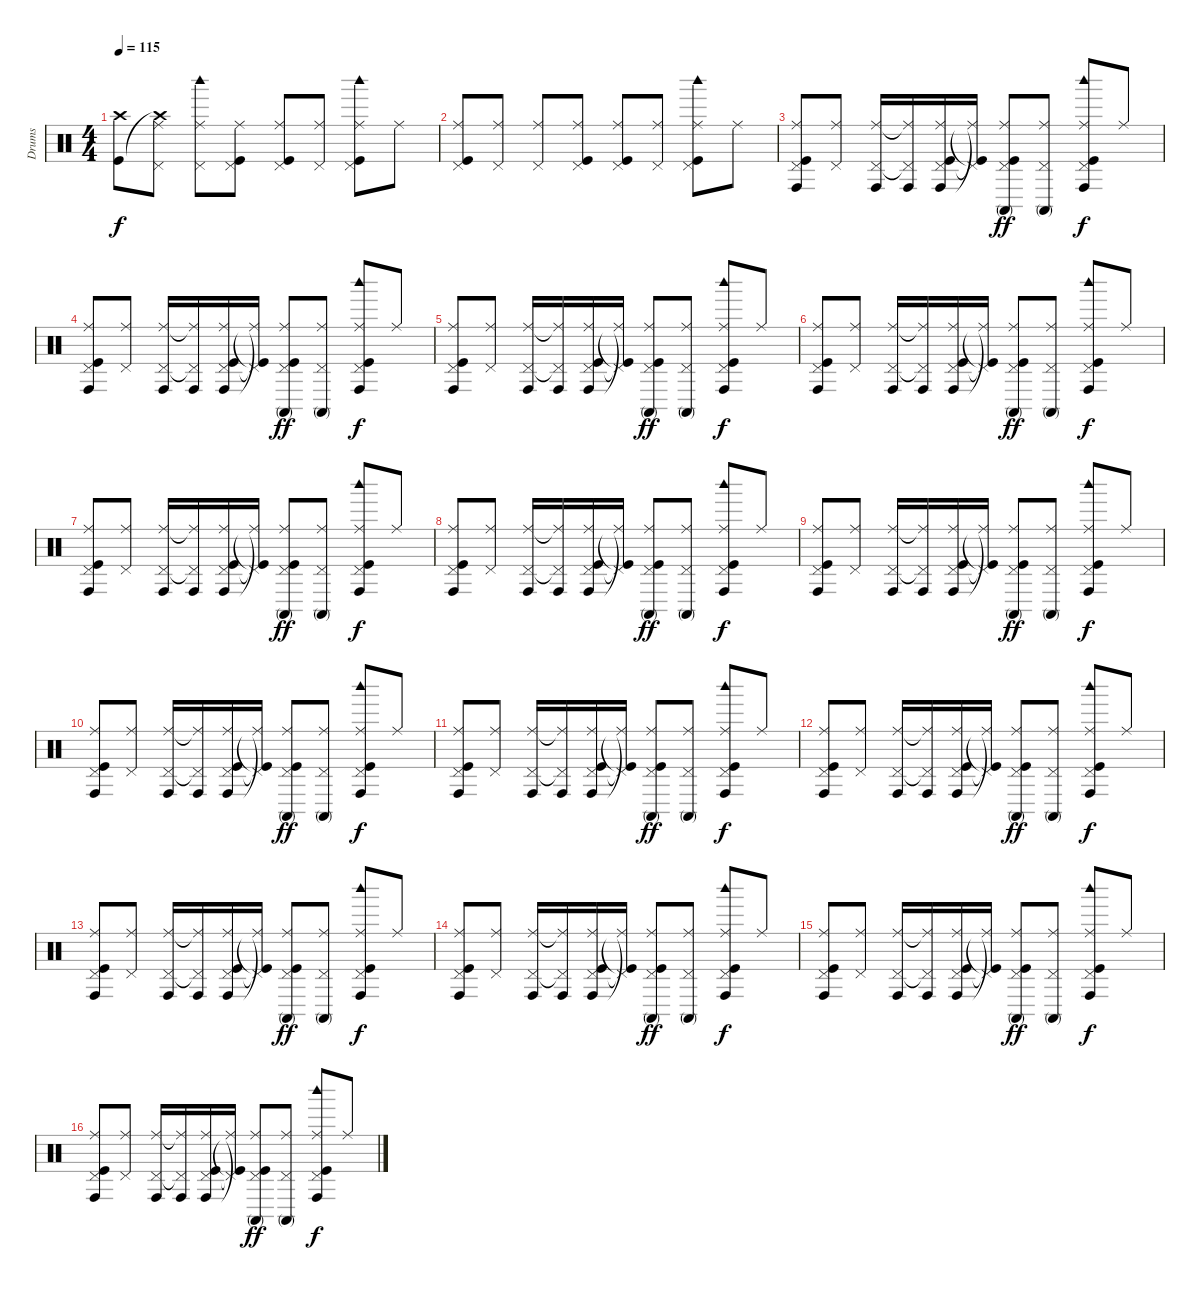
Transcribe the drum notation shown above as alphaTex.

\track ("Drums" "Drums") {instrument percussion}
\staff {score}
\articulation defaults
\ts (4 4)
\tempo 115
\clef neutral
\ks c
("Crash high (hit)" "Kick (hit)").8{dy f} ("Pedal Hi-Hat (hit)" "Crash high (hit)"{t} "Ride (middle)").8 ("Pedal Hi-Hat (hit)" "Woodblock high (hit)" "Ride (middle)").8 ("Pedal Hi-Hat (hit)" "Ride (middle)" "Kick (hit)").8 ("Pedal Hi-Hat (hit)" "Ride (middle)" "Kick (hit)").8 ("Pedal Hi-Hat (hit)" "Ride (middle)").8 ("Pedal Hi-Hat (hit)" "Woodblock high (hit)" "Ride (middle)" "Kick (hit)").8 "Ride (middle)".8 |
("Pedal Hi-Hat (hit)" "Ride (middle)" "Kick (hit)").8 ("Pedal Hi-Hat (hit)" "Ride (middle)").8 ("Pedal Hi-Hat (hit)" "Ride (middle)").8 ("Pedal Hi-Hat (hit)" "Ride (middle)" "Kick (hit)").8 ("Pedal Hi-Hat (hit)" "Ride (middle)" "Kick (hit)").8 ("Pedal Hi-Hat (hit)" "Ride (middle)").8 ("Pedal Hi-Hat (hit)" "Woodblock high (hit)" "Ride (middle)" "Kick (hit)").8 "Ride (middle)".8 |
("Pedal Hi-Hat (hit)" "Conga high (hit)" "Ride (middle)" "Kick (hit)").8 ("Pedal Hi-Hat (hit)" "Ride (middle)").8 ("Pedal Hi-Hat (hit)" "Conga high (hit)" "Ride (middle)").16 ("Pedal Hi-Hat (hit)"{t} "Conga high (hit)" "Ride (middle)"{t}).16 ("Pedal Hi-Hat (hit)" "Conga high (hit)" "Ride (middle)" "Kick (hit)").16 ("Pedal Hi-Hat (hit)"{t} "Ride (middle)"{t} "Kick (hit)"{t}).16 ("Pedal Hi-Hat (hit)" "Conga high (mute)" "Ride (middle)" "Kick (hit)").8{dy ff} ("Pedal Hi-Hat (hit)" "Conga high (mute)" "Ride (middle)").8 ("Pedal Hi-Hat (hit)" "Conga high (hit)" "Woodblock high (hit)" "Ride (middle)" "Kick (hit)").8{dy f} "Ride (middle)".8 |
("Pedal Hi-Hat (hit)" "Conga high (hit)" "Ride (middle)" "Kick (hit)").8 ("Pedal Hi-Hat (hit)" "Ride (middle)").8 ("Pedal Hi-Hat (hit)" "Conga high (hit)" "Ride (middle)").16 ("Pedal Hi-Hat (hit)"{t} "Conga high (hit)" "Ride (middle)"{t}).16 ("Pedal Hi-Hat (hit)" "Conga high (hit)" "Ride (middle)" "Kick (hit)").16 ("Pedal Hi-Hat (hit)"{t} "Ride (middle)"{t} "Kick (hit)"{t}).16 ("Pedal Hi-Hat (hit)" "Conga high (mute)" "Ride (middle)" "Kick (hit)").8{dy ff} ("Pedal Hi-Hat (hit)" "Conga high (mute)" "Ride (middle)").8 ("Pedal Hi-Hat (hit)" "Conga high (hit)" "Woodblock high (hit)" "Ride (middle)" "Kick (hit)").8{dy f} "Ride (middle)".8 |
("Pedal Hi-Hat (hit)" "Conga high (hit)" "Ride (middle)" "Kick (hit)").8 ("Pedal Hi-Hat (hit)" "Ride (middle)").8 ("Pedal Hi-Hat (hit)" "Conga high (hit)" "Ride (middle)").16 ("Pedal Hi-Hat (hit)"{t} "Conga high (hit)" "Ride (middle)"{t}).16 ("Pedal Hi-Hat (hit)" "Conga high (hit)" "Ride (middle)" "Kick (hit)").16 ("Pedal Hi-Hat (hit)"{t} "Ride (middle)"{t} "Kick (hit)"{t}).16 ("Pedal Hi-Hat (hit)" "Conga high (mute)" "Ride (middle)" "Kick (hit)").8{dy ff} ("Pedal Hi-Hat (hit)" "Conga high (mute)" "Ride (middle)").8 ("Pedal Hi-Hat (hit)" "Conga high (hit)" "Woodblock high (hit)" "Ride (middle)" "Kick (hit)").8{dy f} "Ride (middle)".8 |
("Pedal Hi-Hat (hit)" "Conga high (hit)" "Ride (middle)" "Kick (hit)").8 ("Pedal Hi-Hat (hit)" "Ride (middle)").8 ("Pedal Hi-Hat (hit)" "Conga high (hit)" "Ride (middle)").16 ("Pedal Hi-Hat (hit)"{t} "Conga high (hit)" "Ride (middle)"{t}).16 ("Pedal Hi-Hat (hit)" "Conga high (hit)" "Ride (middle)" "Kick (hit)").16 ("Pedal Hi-Hat (hit)"{t} "Ride (middle)"{t} "Kick (hit)"{t}).16 ("Pedal Hi-Hat (hit)" "Conga high (mute)" "Ride (middle)" "Kick (hit)").8{dy ff} ("Pedal Hi-Hat (hit)" "Conga high (mute)" "Ride (middle)").8 ("Pedal Hi-Hat (hit)" "Conga high (hit)" "Woodblock high (hit)" "Ride (middle)" "Kick (hit)").8{dy f} "Ride (middle)".8 |
("Pedal Hi-Hat (hit)" "Conga high (hit)" "Ride (middle)" "Kick (hit)").8 ("Pedal Hi-Hat (hit)" "Ride (middle)").8 ("Pedal Hi-Hat (hit)" "Conga high (hit)" "Ride (middle)").16 ("Pedal Hi-Hat (hit)"{t} "Conga high (hit)" "Ride (middle)"{t}).16 ("Pedal Hi-Hat (hit)" "Conga high (hit)" "Ride (middle)" "Kick (hit)").16 ("Pedal Hi-Hat (hit)"{t} "Ride (middle)"{t} "Kick (hit)"{t}).16 ("Pedal Hi-Hat (hit)" "Conga high (mute)" "Ride (middle)" "Kick (hit)").8{dy ff} ("Pedal Hi-Hat (hit)" "Conga high (mute)" "Ride (middle)").8 ("Pedal Hi-Hat (hit)" "Conga high (hit)" "Woodblock high (hit)" "Ride (middle)" "Kick (hit)").8{dy f} "Ride (middle)".8 |
("Pedal Hi-Hat (hit)" "Conga high (hit)" "Ride (middle)" "Kick (hit)").8 ("Pedal Hi-Hat (hit)" "Ride (middle)").8 ("Pedal Hi-Hat (hit)" "Conga high (hit)" "Ride (middle)").16 ("Pedal Hi-Hat (hit)"{t} "Conga high (hit)" "Ride (middle)"{t}).16 ("Pedal Hi-Hat (hit)" "Conga high (hit)" "Ride (middle)" "Kick (hit)").16 ("Pedal Hi-Hat (hit)"{t} "Ride (middle)"{t} "Kick (hit)"{t}).16 ("Pedal Hi-Hat (hit)" "Conga high (mute)" "Ride (middle)" "Kick (hit)").8{dy ff} ("Pedal Hi-Hat (hit)" "Conga high (mute)" "Ride (middle)").8 ("Pedal Hi-Hat (hit)" "Conga high (hit)" "Woodblock high (hit)" "Ride (middle)" "Kick (hit)").8{dy f} "Ride (middle)".8 |
("Pedal Hi-Hat (hit)" "Conga high (hit)" "Ride (middle)" "Kick (hit)").8 ("Pedal Hi-Hat (hit)" "Ride (middle)").8 ("Pedal Hi-Hat (hit)" "Conga high (hit)" "Ride (middle)").16 ("Pedal Hi-Hat (hit)"{t} "Conga high (hit)" "Ride (middle)"{t}).16 ("Pedal Hi-Hat (hit)" "Conga high (hit)" "Ride (middle)" "Kick (hit)").16 ("Pedal Hi-Hat (hit)"{t} "Ride (middle)"{t} "Kick (hit)"{t}).16 ("Pedal Hi-Hat (hit)" "Conga high (mute)" "Ride (middle)" "Kick (hit)").8{dy ff} ("Pedal Hi-Hat (hit)" "Conga high (mute)" "Ride (middle)").8 ("Pedal Hi-Hat (hit)" "Conga high (hit)" "Woodblock high (hit)" "Ride (middle)" "Kick (hit)").8{dy f} "Ride (middle)".8 |
("Pedal Hi-Hat (hit)" "Conga high (hit)" "Ride (middle)" "Kick (hit)").8 ("Pedal Hi-Hat (hit)" "Ride (middle)").8 ("Pedal Hi-Hat (hit)" "Conga high (hit)" "Ride (middle)").16 ("Pedal Hi-Hat (hit)"{t} "Conga high (hit)" "Ride (middle)"{t}).16 ("Pedal Hi-Hat (hit)" "Conga high (hit)" "Ride (middle)" "Kick (hit)").16 ("Pedal Hi-Hat (hit)"{t} "Ride (middle)"{t} "Kick (hit)"{t}).16 ("Pedal Hi-Hat (hit)" "Conga high (mute)" "Ride (middle)" "Kick (hit)").8{dy ff} ("Pedal Hi-Hat (hit)" "Conga high (mute)" "Ride (middle)").8 ("Pedal Hi-Hat (hit)" "Conga high (hit)" "Woodblock high (hit)" "Ride (middle)" "Kick (hit)").8{dy f} "Ride (middle)".8 |
("Pedal Hi-Hat (hit)" "Conga high (hit)" "Ride (middle)" "Kick (hit)").8 ("Pedal Hi-Hat (hit)" "Ride (middle)").8 ("Pedal Hi-Hat (hit)" "Conga high (hit)" "Ride (middle)").16 ("Pedal Hi-Hat (hit)"{t} "Conga high (hit)" "Ride (middle)"{t}).16 ("Pedal Hi-Hat (hit)" "Conga high (hit)" "Ride (middle)" "Kick (hit)").16 ("Pedal Hi-Hat (hit)"{t} "Ride (middle)"{t} "Kick (hit)"{t}).16 ("Pedal Hi-Hat (hit)" "Conga high (mute)" "Ride (middle)" "Kick (hit)").8{dy ff} ("Pedal Hi-Hat (hit)" "Conga high (mute)" "Ride (middle)").8 ("Pedal Hi-Hat (hit)" "Conga high (hit)" "Woodblock high (hit)" "Ride (middle)" "Kick (hit)").8{dy f} "Ride (middle)".8 |
("Pedal Hi-Hat (hit)" "Conga high (hit)" "Ride (middle)" "Kick (hit)").8 ("Pedal Hi-Hat (hit)" "Ride (middle)").8 ("Pedal Hi-Hat (hit)" "Conga high (hit)" "Ride (middle)").16 ("Pedal Hi-Hat (hit)"{t} "Conga high (hit)" "Ride (middle)"{t}).16 ("Pedal Hi-Hat (hit)" "Conga high (hit)" "Ride (middle)" "Kick (hit)").16 ("Pedal Hi-Hat (hit)"{t} "Ride (middle)"{t} "Kick (hit)"{t}).16 ("Pedal Hi-Hat (hit)" "Conga high (mute)" "Ride (middle)" "Kick (hit)").8{dy ff} ("Pedal Hi-Hat (hit)" "Conga high (mute)" "Ride (middle)").8 ("Pedal Hi-Hat (hit)" "Conga high (hit)" "Woodblock high (hit)" "Ride (middle)" "Kick (hit)").8{dy f} "Ride (middle)".8 |
("Pedal Hi-Hat (hit)" "Conga high (hit)" "Ride (middle)" "Kick (hit)").8 ("Pedal Hi-Hat (hit)" "Ride (middle)").8 ("Pedal Hi-Hat (hit)" "Conga high (hit)" "Ride (middle)").16 ("Pedal Hi-Hat (hit)"{t} "Conga high (hit)" "Ride (middle)"{t}).16 ("Pedal Hi-Hat (hit)" "Conga high (hit)" "Ride (middle)" "Kick (hit)").16 ("Pedal Hi-Hat (hit)"{t} "Ride (middle)"{t} "Kick (hit)"{t}).16 ("Pedal Hi-Hat (hit)" "Conga high (mute)" "Ride (middle)" "Kick (hit)").8{dy ff} ("Pedal Hi-Hat (hit)" "Conga high (mute)" "Ride (middle)").8 ("Pedal Hi-Hat (hit)" "Conga high (hit)" "Woodblock high (hit)" "Ride (middle)" "Kick (hit)").8{dy f} "Ride (middle)".8 |
("Pedal Hi-Hat (hit)" "Conga high (hit)" "Ride (middle)" "Kick (hit)").8 ("Pedal Hi-Hat (hit)" "Ride (middle)").8 ("Pedal Hi-Hat (hit)" "Conga high (hit)" "Ride (middle)").16 ("Pedal Hi-Hat (hit)"{t} "Conga high (hit)" "Ride (middle)"{t}).16 ("Pedal Hi-Hat (hit)" "Conga high (hit)" "Ride (middle)" "Kick (hit)").16 ("Pedal Hi-Hat (hit)"{t} "Ride (middle)"{t} "Kick (hit)"{t}).16 ("Pedal Hi-Hat (hit)" "Conga high (mute)" "Ride (middle)" "Kick (hit)").8{dy ff} ("Pedal Hi-Hat (hit)" "Conga high (mute)" "Ride (middle)").8 ("Pedal Hi-Hat (hit)" "Conga high (hit)" "Woodblock high (hit)" "Ride (middle)" "Kick (hit)").8{dy f} "Ride (middle)".8 |
("Pedal Hi-Hat (hit)" "Conga high (hit)" "Ride (middle)" "Kick (hit)").8 ("Pedal Hi-Hat (hit)" "Ride (middle)").8 ("Pedal Hi-Hat (hit)" "Conga high (hit)" "Ride (middle)").16 ("Pedal Hi-Hat (hit)"{t} "Conga high (hit)" "Ride (middle)"{t}).16 ("Pedal Hi-Hat (hit)" "Conga high (hit)" "Ride (middle)" "Kick (hit)").16 ("Pedal Hi-Hat (hit)"{t} "Ride (middle)"{t} "Kick (hit)"{t}).16 ("Pedal Hi-Hat (hit)" "Conga high (mute)" "Ride (middle)" "Kick (hit)").8{dy ff} ("Pedal Hi-Hat (hit)" "Conga high (mute)" "Ride (middle)").8 ("Pedal Hi-Hat (hit)" "Conga high (hit)" "Woodblock high (hit)" "Ride (middle)" "Kick (hit)").8{dy f} "Ride (middle)".8 |
("Pedal Hi-Hat (hit)" "Conga high (hit)" "Ride (middle)" "Kick (hit)").8 ("Pedal Hi-Hat (hit)" "Ride (middle)").8 ("Pedal Hi-Hat (hit)" "Conga high (hit)" "Ride (middle)").16 ("Pedal Hi-Hat (hit)"{t} "Conga high (hit)" "Ride (middle)"{t}).16 ("Pedal Hi-Hat (hit)" "Conga high (hit)" "Ride (middle)" "Kick (hit)").16 ("Pedal Hi-Hat (hit)"{t} "Ride (middle)"{t} "Kick (hit)"{t}).16 ("Pedal Hi-Hat (hit)" "Conga high (mute)" "Ride (middle)" "Kick (hit)").8{dy ff} ("Pedal Hi-Hat (hit)" "Conga high (mute)" "Ride (middle)").8 ("Pedal Hi-Hat (hit)" "Conga high (hit)" "Woodblock high (hit)" "Ride (middle)" "Kick (hit)").8{dy f} "Ride (middle)".8
